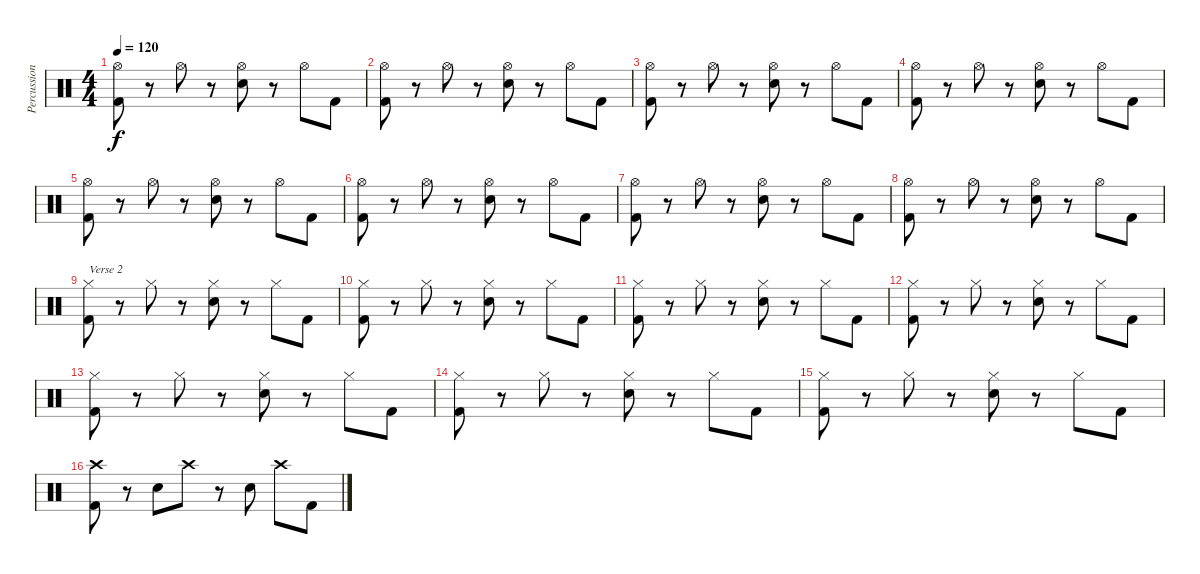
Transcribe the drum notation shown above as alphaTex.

\track ("Percussion" "Percussion") {instrument percussion}
\staff {score}
\articulation defaults
\ts (4 4)
\tempo 120
\clef neutral
\ks c
("Hi-Hat (open)" "Kick (hit) 2").8{dy f} r.8 "Hi-Hat (open)".8 r.8 ("Hi-Hat (open)" "Snare (hit) 2").8 r.8 "Hi-Hat (open)".8 "Kick (hit) 2".8 |
("Hi-Hat (open)" "Kick (hit) 2").8 r.8 "Hi-Hat (open)".8 r.8 ("Hi-Hat (open)" "Snare (hit) 2").8 r.8 "Hi-Hat (open)".8 "Kick (hit) 2".8 |
("Hi-Hat (open)" "Kick (hit) 2").8 r.8 "Hi-Hat (open)".8 r.8 ("Hi-Hat (open)" "Snare (hit) 2").8 r.8 "Hi-Hat (open)".8 "Kick (hit) 2".8 |
("Hi-Hat (open)" "Kick (hit) 2").8 r.8 "Hi-Hat (open)".8 r.8 ("Hi-Hat (open)" "Snare (hit) 2").8 r.8 "Hi-Hat (open)".8 "Kick (hit) 2".8 |
("Hi-Hat (open)" "Kick (hit) 2").8 r.8 "Hi-Hat (open)".8 r.8 ("Hi-Hat (open)" "Snare (hit) 2").8 r.8 "Hi-Hat (open)".8 "Kick (hit) 2".8 |
("Hi-Hat (open)" "Kick (hit) 2").8 r.8 "Hi-Hat (open)".8 r.8 ("Hi-Hat (open)" "Snare (hit) 2").8 r.8 "Hi-Hat (open)".8 "Kick (hit) 2".8 |
("Hi-Hat (open)" "Kick (hit) 2").8 r.8 "Hi-Hat (open)".8 r.8 ("Hi-Hat (open)" "Snare (hit) 2").8 r.8 "Hi-Hat (open)".8 "Kick (hit) 2".8 |
("Hi-Hat (open)" "Kick (hit) 2").8 r.8 "Hi-Hat (open)".8 r.8 ("Hi-Hat (open)" "Snare (hit) 2").8 r.8 "Hi-Hat (open)".8 "Kick (hit) 2".8 |
("Hi-Hat (closed)" "Kick (hit) 2").8{txt "Verse 2"} r.8 "Hi-Hat (closed)".8 r.8 ("Hi-Hat (closed)" "Snare (hit) 2").8 r.8 "Hi-Hat (closed)".8 "Kick (hit) 2".8 |
("Hi-Hat (closed)" "Kick (hit) 2").8 r.8 "Hi-Hat (closed)".8 r.8 ("Hi-Hat (closed)" "Snare (hit) 2").8 r.8 "Hi-Hat (closed)".8 "Kick (hit) 2".8 |
("Hi-Hat (closed)" "Kick (hit) 2").8 r.8 "Hi-Hat (closed)".8 r.8 ("Hi-Hat (closed)" "Snare (hit) 2").8 r.8 "Hi-Hat (closed)".8 "Kick (hit) 2".8 |
("Hi-Hat (closed)" "Kick (hit) 2").8 r.8 "Hi-Hat (closed)".8 r.8 ("Hi-Hat (closed)" "Snare (hit) 2").8 r.8 "Hi-Hat (closed)".8 "Kick (hit) 2".8 |
("Hi-Hat (closed)" "Kick (hit) 2").8 r.8 "Hi-Hat (closed)".8 r.8 ("Hi-Hat (closed)" "Snare (hit) 2").8 r.8 "Hi-Hat (closed)".8 "Kick (hit) 2".8 |
("Hi-Hat (closed)" "Kick (hit) 2").8 r.8 "Hi-Hat (closed)".8 r.8 ("Hi-Hat (closed)" "Snare (hit) 2").8 r.8 "Hi-Hat (closed)".8 "Kick (hit) 2".8 |
("Hi-Hat (closed)" "Kick (hit) 2").8 r.8 "Hi-Hat (closed)".8 r.8 ("Hi-Hat (closed)" "Snare (hit) 2").8 r.8 "Hi-Hat (closed)".8 "Kick (hit) 2".8 |
("Crash high (hit)" "Kick (hit) 2").8 r.8 "Snare (hit) 2".8 "Crash high (hit)".8 r.8 "Snare (hit) 2".8 "Crash high (hit)".8 "Kick (hit) 2".8
